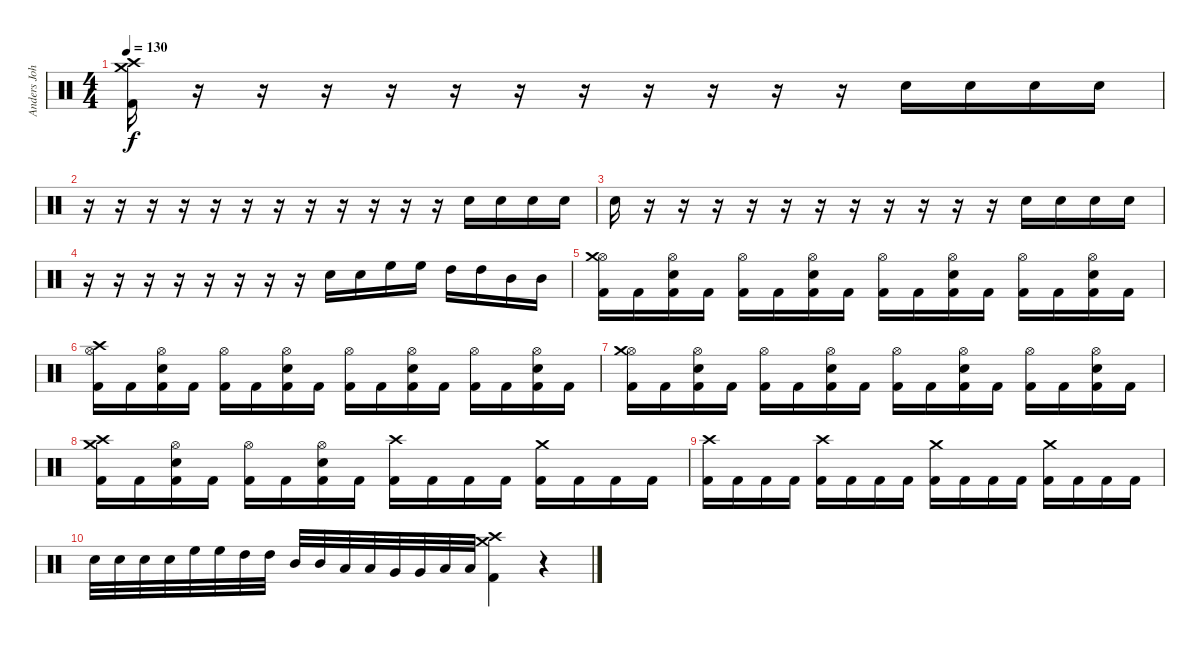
\track ("Anders Johansson - Drums" "Anders Joh") {instrument percussion}
\staff {score}
\articulation defaults
\ts (4 4)
\tempo 130
\clef neutral
\ks c
("Crash medium (hit)" "Kick (hit) 2" "Crash high (hit)").16{dy f} r.16 r.16 r.16 r.16 r.16 r.16 r.16 r.16 r.16 r.16 r.16 "Electric Snare (hit)".16 "Electric Snare (hit)".16 "Electric Snare (hit)".16 "Electric Snare (hit)".16 |
r.16 r.16 r.16 r.16 r.16 r.16 r.16 r.16 r.16 r.16 r.16 r.16 "Electric Snare (hit)".16 "Electric Snare (hit)".16 "Electric Snare (hit)".16 "Electric Snare (hit)".16 |
"Electric Snare (hit)".16 r.16 r.16 r.16 r.16 r.16 r.16 r.16 r.16 r.16 r.16 r.16 "Electric Snare (hit)".16 "Electric Snare (hit)".16 "Electric Snare (hit)".16 "Electric Snare (hit)".16 |
r.16 r.16 r.16 r.16 r.16 r.16 r.16 r.16 "Electric Snare (hit)".16 "Electric Snare (hit)".16 "High Floor Tom (hit)".16 "High Floor Tom (hit)".16 "High Tom (hit)".16 "High Tom (hit)".16 "Mid Tom (hit)".16 "Mid Tom (hit)".16 |
("Hi-Hat (open)" "Kick (hit) 2" "Crash medium (hit)").16 "Kick (hit) 2".16 ("Hi-Hat (open)" "Kick (hit) 2" "Electric Snare (hit)").16 "Kick (hit) 2".16 ("Hi-Hat (open)" "Kick (hit) 2").16 "Kick (hit) 2".16 ("Hi-Hat (open)" "Kick (hit) 2" "Electric Snare (hit)").16 "Kick (hit) 2".16 ("Hi-Hat (open)" "Kick (hit) 2").16 "Kick (hit) 2".16 ("Hi-Hat (open)" "Kick (hit) 2" "Electric Snare (hit)").16 "Kick (hit) 2".16 ("Hi-Hat (open)" "Kick (hit) 2").16 "Kick (hit) 2".16 ("Hi-Hat (open)" "Kick (hit) 2" "Electric Snare (hit)").16 "Kick (hit) 2".16 |
("Hi-Hat (open)" "Kick (hit) 2" "Crash high (hit)").16 "Kick (hit) 2".16 ("Hi-Hat (open)" "Kick (hit) 2" "Electric Snare (hit)").16 "Kick (hit) 2".16 ("Hi-Hat (open)" "Kick (hit) 2").16 "Kick (hit) 2".16 ("Hi-Hat (open)" "Kick (hit) 2" "Electric Snare (hit)").16 "Kick (hit) 2".16 ("Hi-Hat (open)" "Kick (hit) 2").16 "Kick (hit) 2".16 ("Hi-Hat (open)" "Kick (hit) 2" "Electric Snare (hit)").16 "Kick (hit) 2".16 ("Hi-Hat (open)" "Kick (hit) 2").16 "Kick (hit) 2".16 ("Hi-Hat (open)" "Kick (hit) 2" "Electric Snare (hit)").16 "Kick (hit) 2".16 |
("Hi-Hat (open)" "Kick (hit) 2" "Crash medium (hit)").16 "Kick (hit) 2".16 ("Hi-Hat (open)" "Kick (hit) 2" "Electric Snare (hit)").16 "Kick (hit) 2".16 ("Hi-Hat (open)" "Kick (hit) 2").16 "Kick (hit) 2".16 ("Hi-Hat (open)" "Kick (hit) 2" "Electric Snare (hit)").16 "Kick (hit) 2".16 ("Hi-Hat (open)" "Kick (hit) 2").16 "Kick (hit) 2".16 ("Hi-Hat (open)" "Kick (hit) 2" "Electric Snare (hit)").16 "Kick (hit) 2".16 ("Hi-Hat (open)" "Kick (hit) 2").16 "Kick (hit) 2".16 ("Hi-Hat (open)" "Kick (hit) 2" "Electric Snare (hit)").16 "Kick (hit) 2".16 |
("Crash medium (hit)" "Kick (hit) 2" "Crash high (hit)").16 "Kick (hit) 2".16 ("Hi-Hat (open)" "Kick (hit) 2" "Electric Snare (hit)").16 "Kick (hit) 2".16 ("Hi-Hat (open)" "Kick (hit) 2").16 "Kick (hit) 2".16 ("Hi-Hat (open)" "Kick (hit) 2" "Electric Snare (hit)").16 "Kick (hit) 2".16 ("Crash high (hit)" "Kick (hit) 2").16 "Kick (hit) 2".16 "Kick (hit) 2".16 "Kick (hit) 2".16 ("Crash medium (hit)" "Kick (hit) 2").16 "Kick (hit) 2".16 "Kick (hit) 2".16 "Kick (hit) 2".16 |
("Kick (hit) 2" "Crash high (hit)").16 "Kick (hit) 2".16 "Kick (hit) 2".16 "Kick (hit) 2".16 ("Crash high (hit)" "Kick (hit) 2").16 "Kick (hit) 2".16 "Kick (hit) 2".16 "Kick (hit) 2".16 ("Crash medium (hit)" "Kick (hit) 2").16 "Kick (hit) 2".16 "Kick (hit) 2".16 "Kick (hit) 2".16 ("Crash medium (hit)" "Kick (hit) 2").16 "Kick (hit) 2".16 "Kick (hit) 2".16 "Kick (hit) 2".16 |
"Electric Snare (hit)".32 "Electric Snare (hit)".32 "Electric Snare (hit)".32 "Electric Snare (hit)".32 "High Floor Tom (hit)".32 "High Floor Tom (hit)".32 "High Tom (hit)".32 "High Tom (hit)".32 "Mid Tom (hit)".32 "Mid Tom (hit)".32 "Low Tom (hit)".32 "Low Tom (hit)".32 "Very Low Tom (hit)".32 "Very Low Tom (hit)".32 "Low Floor Tom (hit)".32 "Low Floor Tom (hit)".32 ("Kick (hit) 2" "Crash high (hit)" "Crash medium (hit)").4 r.4
